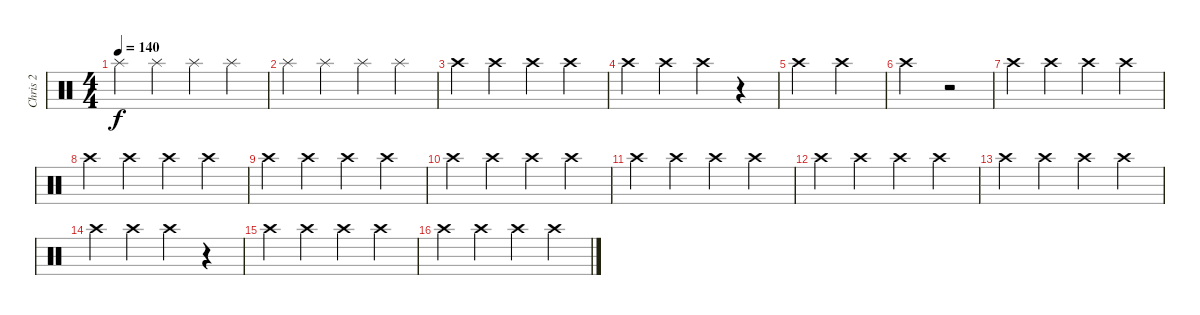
\track ("Chris 2" "Chris 2") {instrument percussion}
\staff {score}
\articulation defaults
\ts (4 4)
\tempo 140
\clef neutral
\ks c "Splash (hit)".4{dy f} "Splash (hit)".4 "Splash (hit)".4 "Splash (hit)".4
|
"Splash (hit)".4 "Splash (hit)".4 "Splash (hit)".4 "Splash (hit)".4 |
"Crash high (hit)".4 "Crash high (hit)".4 "Crash high (hit)".4 "Crash high (hit)".4 |
"Crash high (hit)".4 "Crash high (hit)".4 "Crash high (hit)".4 r.4 |
"Crash high (hit)".2 "Crash high (hit)".2 |
"Crash high (hit)".2 r.2 |
"Crash high (hit)".4 "Crash high (hit)".4 "Crash high (hit)".4 "Crash high (hit)".4 |
"Crash high (hit)".4 "Crash high (hit)".4 "Crash high (hit)".4 "Crash high (hit)".4 |
"Crash high (hit)".4 "Crash high (hit)".4 "Crash high (hit)".4 "Crash high (hit)".4 |
"Crash high (hit)".4 "Crash high (hit)".4 "Crash high (hit)".4 "Crash high (hit)".4 |
"Crash high (hit)".4 "Crash high (hit)".4 "Crash high (hit)".4 "Crash high (hit)".4 |
"Crash high (hit)".4 "Crash high (hit)".4 "Crash high (hit)".4 "Crash high (hit)".4 |
"Crash high (hit)".4 "Crash high (hit)".4 "Crash high (hit)".4 "Crash high (hit)".4 |
"Crash high (hit)".4 "Crash high (hit)".4 "Crash high (hit)".4 r.4 |
"Crash high (hit)".4 "Crash high (hit)".4 "Crash high (hit)".4 "Crash high (hit)".4 |
"Crash high (hit)".4 "Crash high (hit)".4 "Crash high (hit)".4 "Crash high (hit)".4
